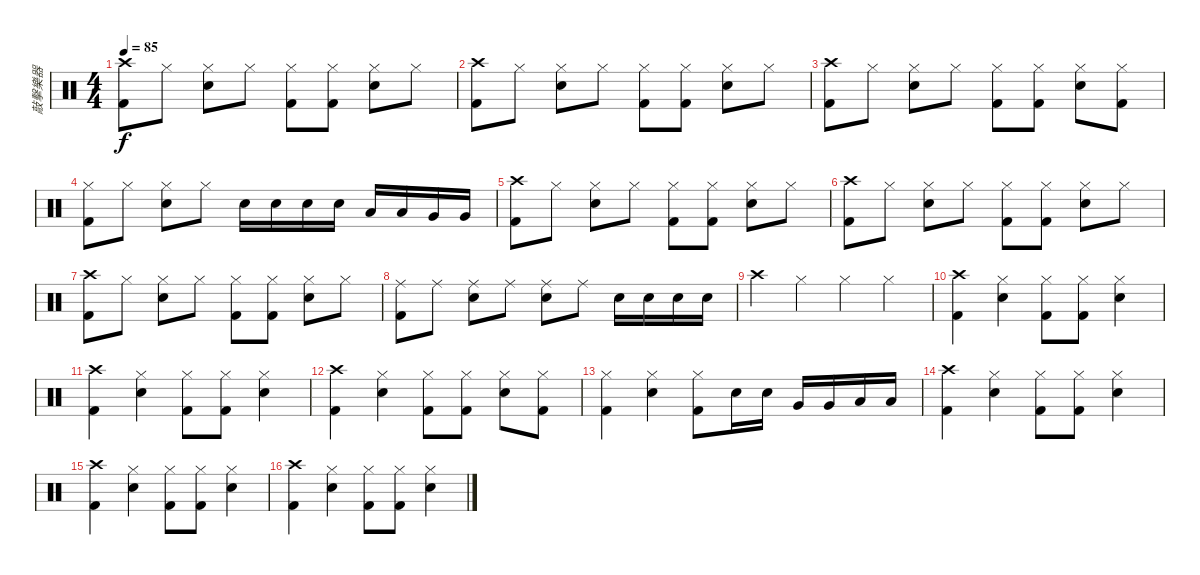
\track ("敲擊樂器" "敲擊樂器") {instrument percussion}
\staff {score}
\articulation defaults
\ts (4 4)
\tempo 85
\clef neutral
\ks c
("Crash high (hit)" "Kick (hit) 2").8{dy f} "Hi-Hat (closed)".8 ("Hi-Hat (closed)" "Snare (hit) 2").8 "Hi-Hat (closed)".8 ("Hi-Hat (closed)" "Kick (hit) 2").8 ("Hi-Hat (closed)" "Kick (hit) 2").8 ("Hi-Hat (closed)" "Snare (hit) 2").8 "Hi-Hat (closed)".8 |
("Crash high (hit)" "Kick (hit) 2").8 "Hi-Hat (closed)".8 ("Hi-Hat (closed)" "Snare (hit) 2").8 "Hi-Hat (closed)".8 ("Hi-Hat (closed)" "Kick (hit) 2").8 ("Hi-Hat (closed)" "Kick (hit) 2").8 ("Hi-Hat (closed)" "Snare (hit) 2").8 "Hi-Hat (closed)".8 |
("Crash high (hit)" "Kick (hit) 2").8 "Hi-Hat (closed)".8 ("Hi-Hat (closed)" "Snare (hit) 2").8 "Hi-Hat (closed)".8 ("Hi-Hat (closed)" "Kick (hit) 2").8 ("Hi-Hat (closed)" "Kick (hit) 2").8 ("Hi-Hat (closed)" "Snare (hit) 2").8 ("Hi-Hat (closed)" "Kick (hit) 2").8 |
("Hi-Hat (closed)" "Kick (hit) 2").8 "Hi-Hat (closed)".8 ("Hi-Hat (closed)" "Snare (hit) 2").8 "Hi-Hat (closed)".8 "Snare (hit) 2".16 "Snare (hit) 2".16 "Snare (hit) 2".16 "Snare (hit) 2".16 "Low Tom (hit)".16 "Low Tom (hit)".16 "Very Low Tom (hit)".16 "Very Low Tom (hit)".16 |
("Crash high (hit)" "Kick (hit) 2").8 "Hi-Hat (closed)".8 ("Hi-Hat (closed)" "Snare (hit) 2").8 "Hi-Hat (closed)".8 ("Hi-Hat (closed)" "Kick (hit) 2").8 ("Hi-Hat (closed)" "Kick (hit) 2").8 ("Hi-Hat (closed)" "Snare (hit) 2").8 "Hi-Hat (closed)".8 |
("Crash high (hit)" "Kick (hit) 2").8 "Hi-Hat (closed)".8 ("Hi-Hat (closed)" "Snare (hit) 2").8 "Hi-Hat (closed)".8 ("Hi-Hat (closed)" "Kick (hit) 2").8 ("Hi-Hat (closed)" "Kick (hit) 2").8 ("Hi-Hat (closed)" "Snare (hit) 2").8 "Hi-Hat (closed)".8 |
("Crash high (hit)" "Kick (hit) 2").8 "Hi-Hat (closed)".8 ("Hi-Hat (closed)" "Snare (hit) 2").8 "Hi-Hat (closed)".8 ("Hi-Hat (closed)" "Kick (hit) 2").8 ("Hi-Hat (closed)" "Kick (hit) 2").8 ("Hi-Hat (closed)" "Snare (hit) 2").8 "Hi-Hat (closed)".8 |
("Ride (middle)" "Kick (hit) 2").8 "Ride (middle)".8 ("Ride (middle)" "Snare (hit) 2").8 "Ride (middle)".8 ("Ride (middle)" "Snare (hit) 2").8 "Ride (middle)".8 "Snare (hit) 2".16 "Snare (hit) 2".16 "Snare (hit) 2".16 "Snare (hit) 2".16 |
"Crash high (hit)".4 "Hi-Hat (closed)".4 "Hi-Hat (closed)".4 "Hi-Hat (closed)".4 |
("Crash high (hit)" "Kick (hit) 2").4 ("Hi-Hat (closed)" "Snare (hit) 2").4 ("Hi-Hat (closed)" "Kick (hit) 2").8 ("Hi-Hat (closed)" "Kick (hit) 2").8 ("Hi-Hat (closed)" "Snare (hit) 2").4 |
("Crash high (hit)" "Kick (hit) 2").4 ("Hi-Hat (closed)" "Snare (hit) 2").4 ("Hi-Hat (closed)" "Kick (hit) 2").8 ("Hi-Hat (closed)" "Kick (hit) 2").8 ("Hi-Hat (closed)" "Snare (hit) 2").4 |
("Crash high (hit)" "Kick (hit) 2").4 ("Hi-Hat (closed)" "Snare (hit) 2").4 ("Hi-Hat (closed)" "Kick (hit) 2").8 ("Hi-Hat (closed)" "Kick (hit) 2").8 ("Hi-Hat (closed)" "Snare (hit) 2").8 ("Hi-Hat (closed)" "Kick (hit) 2").8 |
("Hi-Hat (closed)" "Kick (hit) 2").4 ("Hi-Hat (closed)" "Snare (hit) 2").4 ("Hi-Hat (closed)" "Kick (hit) 2").8 "Snare (hit) 2".16 "Snare (hit) 2".16 "Very Low Tom (hit)".16 "Very Low Tom (hit)".16 "Low Floor Tom (hit)".16 "Low Floor Tom (hit)".16 |
("Crash high (hit)" "Kick (hit) 2").4 ("Hi-Hat (closed)" "Snare (hit) 2").4 ("Hi-Hat (closed)" "Kick (hit) 2").8 ("Hi-Hat (closed)" "Kick (hit) 2").8 ("Hi-Hat (closed)" "Snare (hit) 2").4 |
("Crash high (hit)" "Kick (hit) 2").4 ("Hi-Hat (closed)" "Snare (hit) 2").4 ("Hi-Hat (closed)" "Kick (hit) 2").8 ("Hi-Hat (closed)" "Kick (hit) 2").8 ("Hi-Hat (closed)" "Snare (hit) 2").4 |
("Crash high (hit)" "Kick (hit) 2").4 ("Hi-Hat (closed)" "Snare (hit) 2").4 ("Hi-Hat (closed)" "Kick (hit) 2").8 ("Hi-Hat (closed)" "Kick (hit) 2").8 ("Hi-Hat (closed)" "Snare (hit) 2").4
